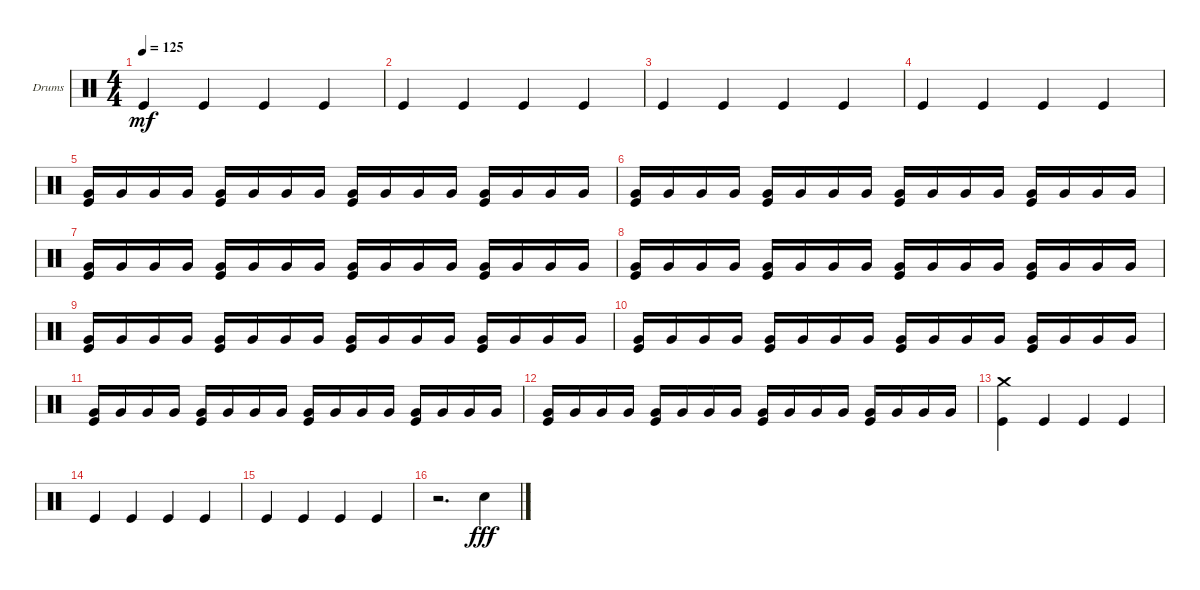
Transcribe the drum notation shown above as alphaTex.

\defaultSystemsLayout 4
\bracketExtendMode groupsimilarinstruments
\firstSystemTrackNameOrientation horizontal
\otherSystemsTrackNameOrientation horizontal
\track ("Drumkit" "Drums") {instrument percussion}
\staff {score}
\articulation defaults
\ts (4 4)
\tempo 125
\clef neutral
\scale
0.333333
\ks c "Kick (hit)".4{dy mf} "Kick (hit)".4 "Kick (hit)".4 "Kick (hit)".4
|
\scale
0.333333 "Kick (hit)".4 "Kick (hit)".4 "Kick (hit)".4 "Kick (hit)".4 |
\scale
0.333333 "Kick (hit)".4 "Kick (hit)".4 "Kick (hit)".4 "Kick (hit)".4 |
\scale
0.333333 "Kick (hit)".4 "Kick (hit)".4 "Kick (hit)".4 "Kick (hit)".4 |
\scale
0.333333 ("Very Low Tom (hit)" "Kick (hit)").16 "Very Low Tom (hit)".16 "Very Low Tom (hit)".16 "Very Low Tom (hit)".16 ("Very Low Tom (hit)" "Kick (hit)").16 "Very Low Tom (hit)".16 "Very Low Tom (hit)".16 "Very Low Tom (hit)".16 ("Very Low Tom (hit)" "Kick (hit)").16 "Very Low Tom (hit)".16 "Very Low Tom (hit)".16 "Very Low Tom (hit)".16 ("Very Low Tom (hit)" "Kick (hit)").16 "Very Low Tom (hit)".16 "Very Low Tom (hit)".16 "Very Low Tom (hit)".16 |
\scale
0.333333 ("Very Low Tom (hit)" "Kick (hit)").16 "Very Low Tom (hit)".16 "Very Low Tom (hit)".16 "Very Low Tom (hit)".16 ("Very Low Tom (hit)" "Kick (hit)").16 "Very Low Tom (hit)".16 "Very Low Tom (hit)".16 "Very Low Tom (hit)".16 ("Very Low Tom (hit)" "Kick (hit)").16 "Very Low Tom (hit)".16 "Very Low Tom (hit)".16 "Very Low Tom (hit)".16 ("Very Low Tom (hit)" "Kick (hit)").16 "Very Low Tom (hit)".16 "Very Low Tom (hit)".16 "Very Low Tom (hit)".16 |
\scale
0.333333 ("Very Low Tom (hit)" "Kick (hit)").16 "Very Low Tom (hit)".16 "Very Low Tom (hit)".16 "Very Low Tom (hit)".16 ("Very Low Tom (hit)" "Kick (hit)").16 "Very Low Tom (hit)".16 "Very Low Tom (hit)".16 "Very Low Tom (hit)".16 ("Very Low Tom (hit)" "Kick (hit)").16 "Very Low Tom (hit)".16 "Very Low Tom (hit)".16 "Very Low Tom (hit)".16 ("Very Low Tom (hit)" "Kick (hit)").16 "Very Low Tom (hit)".16 "Very Low Tom (hit)".16 "Very Low Tom (hit)".16 |
\scale
0.333333 ("Very Low Tom (hit)" "Kick (hit)").16 "Very Low Tom (hit)".16 "Very Low Tom (hit)".16 "Very Low Tom (hit)".16 ("Very Low Tom (hit)" "Kick (hit)").16 "Very Low Tom (hit)".16 "Very Low Tom (hit)".16 "Very Low Tom (hit)".16 ("Very Low Tom (hit)" "Kick (hit)").16 "Very Low Tom (hit)".16 "Very Low Tom (hit)".16 "Very Low Tom (hit)".16 ("Very Low Tom (hit)" "Kick (hit)").16 "Very Low Tom (hit)".16 "Very Low Tom (hit)".16 "Very Low Tom (hit)".16 |
\scale
0.333333 ("Very Low Tom (hit)" "Kick (hit)").16 "Very Low Tom (hit)".16 "Very Low Tom (hit)".16 "Very Low Tom (hit)".16 ("Very Low Tom (hit)" "Kick (hit)").16 "Very Low Tom (hit)".16 "Very Low Tom (hit)".16 "Very Low Tom (hit)".16 ("Very Low Tom (hit)" "Kick (hit)").16 "Very Low Tom (hit)".16 "Very Low Tom (hit)".16 "Very Low Tom (hit)".16 ("Very Low Tom (hit)" "Kick (hit)").16 "Very Low Tom (hit)".16 "Very Low Tom (hit)".16 "Very Low Tom (hit)".16 |
\scale
0.333333 ("Very Low Tom (hit)" "Kick (hit)").16 "Very Low Tom (hit)".16 "Very Low Tom (hit)".16 "Very Low Tom (hit)".16 ("Very Low Tom (hit)" "Kick (hit)").16 "Very Low Tom (hit)".16 "Very Low Tom (hit)".16 "Very Low Tom (hit)".16 ("Very Low Tom (hit)" "Kick (hit)").16 "Very Low Tom (hit)".16 "Very Low Tom (hit)".16 "Very Low Tom (hit)".16 ("Very Low Tom (hit)" "Kick (hit)").16 "Very Low Tom (hit)".16 "Very Low Tom (hit)".16 "Very Low Tom (hit)".16 |
\scale
0.333333 ("Very Low Tom (hit)" "Kick (hit)").16 "Very Low Tom (hit)".16 "Very Low Tom (hit)".16 "Very Low Tom (hit)".16 ("Very Low Tom (hit)" "Kick (hit)").16 "Very Low Tom (hit)".16 "Very Low Tom (hit)".16 "Very Low Tom (hit)".16 ("Very Low Tom (hit)" "Kick (hit)").16 "Very Low Tom (hit)".16 "Very Low Tom (hit)".16 "Very Low Tom (hit)".16 ("Very Low Tom (hit)" "Kick (hit)").16 "Very Low Tom (hit)".16 "Very Low Tom (hit)".16 "Very Low Tom (hit)".16 |
\scale
0.333333 ("Very Low Tom (hit)" "Kick (hit)").16 "Very Low Tom (hit)".16 "Very Low Tom (hit)".16 "Very Low Tom (hit)".16 ("Very Low Tom (hit)" "Kick (hit)").16 "Very Low Tom (hit)".16 "Very Low Tom (hit)".16 "Very Low Tom (hit)".16 ("Very Low Tom (hit)" "Kick (hit)").16 "Very Low Tom (hit)".16 "Very Low Tom (hit)".16 "Very Low Tom (hit)".16 ("Very Low Tom (hit)" "Kick (hit)").16 "Very Low Tom (hit)".16 "Very Low Tom (hit)".16 "Very Low Tom (hit)".16 |
\scale
0.333333 ("Kick (hit)" "Crash medium (hit)").4 "Kick (hit)".4 "Kick (hit)".4 "Kick (hit)".4 |
\scale
0.333333 "Kick (hit)".4 "Kick (hit)".4 "Kick (hit)".4 "Kick (hit)".4 |
\scale
0.333333 "Kick (hit)".4 "Kick (hit)".4 "Kick (hit)".4 "Kick (hit)".4 |
\scale
0.333333 r.2{d} "Snare (hit) 2".4{dy fff}
